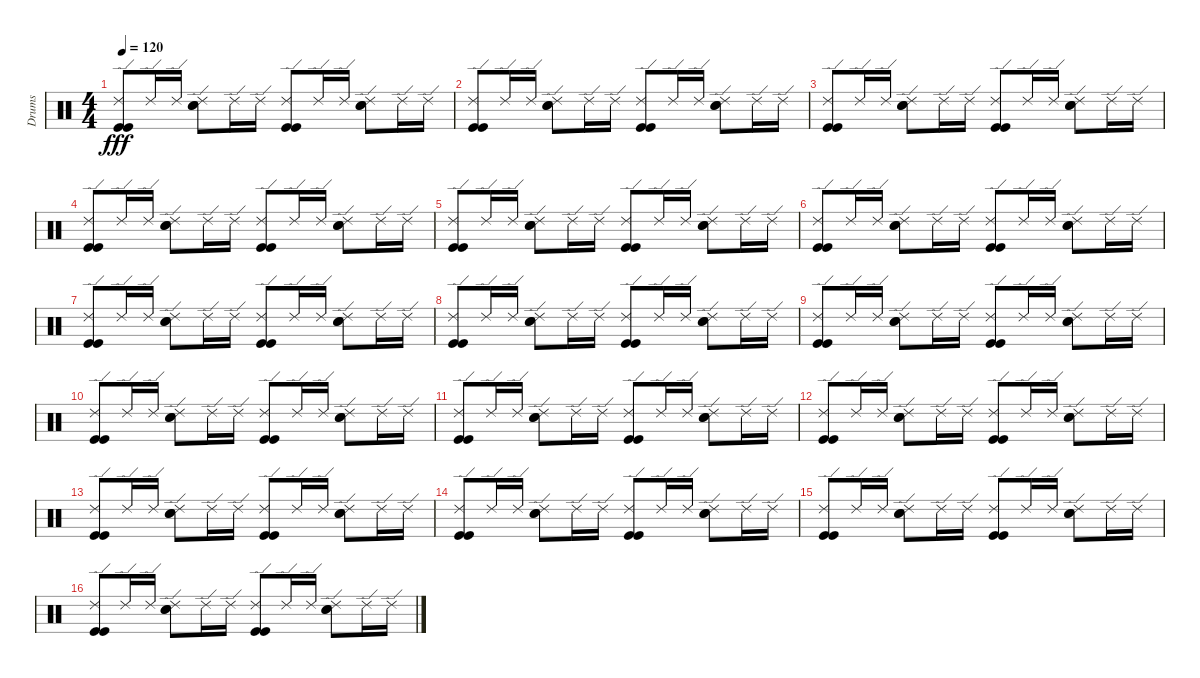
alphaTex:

\track ("Drums" "Drums") {instrument percussion}
\staff {score}
\articulation defaults
\ts (4 4)
\tempo 120
\clef neutral
\ks c
("Ride (edge) 2" "Kick (hit)" "Kick (hit)").8{dy fff} "Ride (edge) 2".16 "Ride (edge) 2".16 ("Ride (edge) 2" "Electric Snare (hit)" "Electric Snare (hit)").8 "Ride (edge) 2".16 "Ride (edge) 2".16 ("Ride (edge) 2" "Kick (hit)" "Kick (hit)").8 "Ride (edge) 2".16 "Ride (edge) 2".16 ("Ride (edge) 2" "Electric Snare (hit)" "Electric Snare (hit)").8 "Ride (edge) 2".16 "Ride (edge) 2".16 |
("Ride (edge) 2" "Kick (hit)" "Kick (hit)").8 "Ride (edge) 2".16 "Ride (edge) 2".16 ("Ride (edge) 2" "Electric Snare (hit)" "Electric Snare (hit)").8 "Ride (edge) 2".16 "Ride (edge) 2".16 ("Ride (edge) 2" "Kick (hit)" "Kick (hit)").8 "Ride (edge) 2".16 "Ride (edge) 2".16 ("Ride (edge) 2" "Electric Snare (hit)" "Electric Snare (hit)").8 "Ride (edge) 2".16 "Ride (edge) 2".16 |
("Ride (edge) 2" "Kick (hit)" "Kick (hit)").8 "Ride (edge) 2".16 "Ride (edge) 2".16 ("Ride (edge) 2" "Electric Snare (hit)" "Electric Snare (hit)").8 "Ride (edge) 2".16 "Ride (edge) 2".16 ("Ride (edge) 2" "Kick (hit)" "Kick (hit)").8 "Ride (edge) 2".16 "Ride (edge) 2".16 ("Ride (edge) 2" "Electric Snare (hit)" "Electric Snare (hit)").8 "Ride (edge) 2".16 "Ride (edge) 2".16 |
("Ride (edge) 2" "Kick (hit)" "Kick (hit)").8 "Ride (edge) 2".16 "Ride (edge) 2".16 ("Ride (edge) 2" "Electric Snare (hit)" "Electric Snare (hit)").8 "Ride (edge) 2".16 "Ride (edge) 2".16 ("Ride (edge) 2" "Kick (hit)" "Kick (hit)").8 "Ride (edge) 2".16 "Ride (edge) 2".16 ("Ride (edge) 2" "Electric Snare (hit)" "Electric Snare (hit)").8 "Ride (edge) 2".16 "Ride (edge) 2".16 |
("Ride (edge) 2" "Kick (hit)" "Kick (hit)").8 "Ride (edge) 2".16 "Ride (edge) 2".16 ("Ride (edge) 2" "Electric Snare (hit)" "Electric Snare (hit)").8 "Ride (edge) 2".16 "Ride (edge) 2".16 ("Ride (edge) 2" "Kick (hit)" "Kick (hit)").8 "Ride (edge) 2".16 "Ride (edge) 2".16 ("Ride (edge) 2" "Electric Snare (hit)" "Electric Snare (hit)").8 "Ride (edge) 2".16 "Ride (edge) 2".16 |
("Ride (edge) 2" "Kick (hit)" "Kick (hit)").8 "Ride (edge) 2".16 "Ride (edge) 2".16 ("Ride (edge) 2" "Electric Snare (hit)" "Electric Snare (hit)").8 "Ride (edge) 2".16 "Ride (edge) 2".16 ("Ride (edge) 2" "Kick (hit)" "Kick (hit)").8 "Ride (edge) 2".16 "Ride (edge) 2".16 ("Ride (edge) 2" "Electric Snare (hit)" "Electric Snare (hit)").8 "Ride (edge) 2".16 "Ride (edge) 2".16 |
("Ride (edge) 2" "Kick (hit)" "Kick (hit)").8 "Ride (edge) 2".16 "Ride (edge) 2".16 ("Ride (edge) 2" "Electric Snare (hit)" "Electric Snare (hit)").8 "Ride (edge) 2".16 "Ride (edge) 2".16 ("Ride (edge) 2" "Kick (hit)" "Kick (hit)").8 "Ride (edge) 2".16 "Ride (edge) 2".16 ("Ride (edge) 2" "Electric Snare (hit)" "Electric Snare (hit)").8 "Ride (edge) 2".16 "Ride (edge) 2".16 |
("Ride (edge) 2" "Kick (hit)" "Kick (hit)").8 "Ride (edge) 2".16 "Ride (edge) 2".16 ("Ride (edge) 2" "Electric Snare (hit)" "Electric Snare (hit)").8 "Ride (edge) 2".16 "Ride (edge) 2".16 ("Ride (edge) 2" "Kick (hit)" "Kick (hit)").8 "Ride (edge) 2".16 "Ride (edge) 2".16 ("Ride (edge) 2" "Electric Snare (hit)" "Electric Snare (hit)").8 "Ride (edge) 2".16 "Ride (edge) 2".16 |
("Ride (edge) 2" "Kick (hit)" "Kick (hit)").8 "Ride (edge) 2".16 "Ride (edge) 2".16 ("Ride (edge) 2" "Electric Snare (hit)" "Electric Snare (hit)").8 "Ride (edge) 2".16 "Ride (edge) 2".16 ("Ride (edge) 2" "Kick (hit)" "Kick (hit)").8 "Ride (edge) 2".16 "Ride (edge) 2".16 ("Ride (edge) 2" "Electric Snare (hit)" "Electric Snare (hit)").8 "Ride (edge) 2".16 "Ride (edge) 2".16 |
("Ride (edge) 2" "Kick (hit)" "Kick (hit)").8 "Ride (edge) 2".16 "Ride (edge) 2".16 ("Ride (edge) 2" "Electric Snare (hit)" "Electric Snare (hit)").8 "Ride (edge) 2".16 "Ride (edge) 2".16 ("Ride (edge) 2" "Kick (hit)" "Kick (hit)").8 "Ride (edge) 2".16 "Ride (edge) 2".16 ("Ride (edge) 2" "Electric Snare (hit)" "Electric Snare (hit)").8 "Ride (edge) 2".16 "Ride (edge) 2".16 |
("Ride (edge) 2" "Kick (hit)" "Kick (hit)").8 "Ride (edge) 2".16 "Ride (edge) 2".16 ("Ride (edge) 2" "Electric Snare (hit)" "Electric Snare (hit)").8 "Ride (edge) 2".16 "Ride (edge) 2".16 ("Ride (edge) 2" "Kick (hit)" "Kick (hit)").8 "Ride (edge) 2".16 "Ride (edge) 2".16 ("Ride (edge) 2" "Electric Snare (hit)" "Electric Snare (hit)").8 "Ride (edge) 2".16 "Ride (edge) 2".16 |
("Ride (edge) 2" "Kick (hit)" "Kick (hit)").8 "Ride (edge) 2".16 "Ride (edge) 2".16 ("Ride (edge) 2" "Electric Snare (hit)" "Electric Snare (hit)").8 "Ride (edge) 2".16 "Ride (edge) 2".16 ("Ride (edge) 2" "Kick (hit)" "Kick (hit)").8 "Ride (edge) 2".16 "Ride (edge) 2".16 ("Ride (edge) 2" "Electric Snare (hit)" "Electric Snare (hit)").8 "Ride (edge) 2".16 "Ride (edge) 2".16 |
("Ride (edge) 2" "Kick (hit)" "Kick (hit)").8 "Ride (edge) 2".16 "Ride (edge) 2".16 ("Ride (edge) 2" "Electric Snare (hit)" "Electric Snare (hit)").8 "Ride (edge) 2".16 "Ride (edge) 2".16 ("Ride (edge) 2" "Kick (hit)" "Kick (hit)").8 "Ride (edge) 2".16 "Ride (edge) 2".16 ("Ride (edge) 2" "Electric Snare (hit)" "Electric Snare (hit)").8 "Ride (edge) 2".16 "Ride (edge) 2".16 |
("Ride (edge) 2" "Kick (hit)" "Kick (hit)").8 "Ride (edge) 2".16 "Ride (edge) 2".16 ("Ride (edge) 2" "Electric Snare (hit)" "Electric Snare (hit)").8 "Ride (edge) 2".16 "Ride (edge) 2".16 ("Ride (edge) 2" "Kick (hit)" "Kick (hit)").8 "Ride (edge) 2".16 "Ride (edge) 2".16 ("Ride (edge) 2" "Electric Snare (hit)" "Electric Snare (hit)").8 "Ride (edge) 2".16 "Ride (edge) 2".16 |
("Ride (edge) 2" "Kick (hit)" "Kick (hit)").8 "Ride (edge) 2".16 "Ride (edge) 2".16 ("Ride (edge) 2" "Electric Snare (hit)" "Electric Snare (hit)").8 "Ride (edge) 2".16 "Ride (edge) 2".16 ("Ride (edge) 2" "Kick (hit)" "Kick (hit)").8 "Ride (edge) 2".16 "Ride (edge) 2".16 ("Ride (edge) 2" "Electric Snare (hit)" "Electric Snare (hit)").8 "Ride (edge) 2".16 "Ride (edge) 2".16 |
("Ride (edge) 2" "Kick (hit)" "Kick (hit)").8 "Ride (edge) 2".16 "Ride (edge) 2".16 ("Ride (edge) 2" "Electric Snare (hit)" "Electric Snare (hit)").8 "Ride (edge) 2".16 "Ride (edge) 2".16 ("Ride (edge) 2" "Kick (hit)" "Kick (hit)").8 "Ride (edge) 2".16 "Ride (edge) 2".16 ("Ride (edge) 2" "Electric Snare (hit)" "Electric Snare (hit)").8 "Ride (edge) 2".16 "Ride (edge) 2".16
